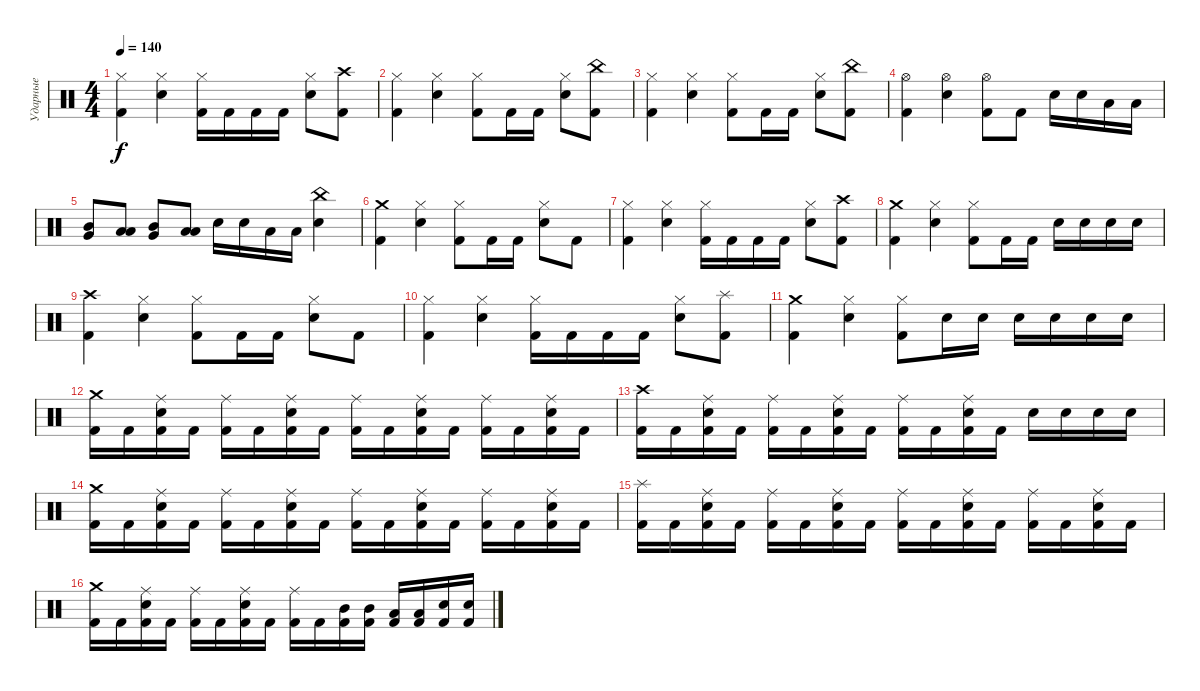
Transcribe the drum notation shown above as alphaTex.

\track ("Ударные" "Ударные") {instrument percussion}
\staff {score}
\articulation defaults
\ts (4 4)
\tempo 140
\clef neutral
\ks c
("Hi-Hat (closed)" "Kick (hit) 2").4{dy f} ("Hi-Hat (closed)" "Electric Snare (hit)").4 ("Hi-Hat (closed)" "Kick (hit) 2").16 "Kick (hit) 2".16 "Kick (hit) 2".16 "Kick (hit) 2".16 ("Hi-Hat (closed)" "Electric Snare (hit)").8 ("Crash high (hit)" "Kick (hit) 2").8 |
("Hi-Hat (closed)" "Kick (hit) 2").4 ("Hi-Hat (closed)" "Electric Snare (hit)").4 ("Hi-Hat (closed)" "Kick (hit) 2").8 "Kick (hit) 2".16 "Kick (hit) 2".16 ("Hi-Hat (closed)" "Electric Snare (hit)").8 ("China (hit)" "Kick (hit) 2").8 |
("Hi-Hat (closed)" "Kick (hit) 2").4 ("Hi-Hat (closed)" "Electric Snare (hit)").4 ("Hi-Hat (closed)" "Kick (hit) 2").8 "Kick (hit) 2".16 "Kick (hit) 2".16 ("Hi-Hat (closed)" "Electric Snare (hit)").8 ("China (hit)" "Kick (hit) 2").8 |
("Hi-Hat (open)" "Kick (hit) 2").4 ("Hi-Hat (open)" "Electric Snare (hit)").4 ("Hi-Hat (open)" "Kick (hit) 2").8 "Kick (hit) 2".8 "Electric Snare (hit)".16 "Electric Snare (hit)".16 "Low Tom (hit)".16 "Low Tom (hit)".16 |
("Mid Tom (hit)" "Very Low Tom (hit)").8 ("Low Tom (hit)" "Low Floor Tom (hit)").8 ("Mid Tom (hit)" "Very Low Tom (hit)").8 ("Low Tom (hit)" "Low Floor Tom (hit)").8 "Electric Snare (hit)".16 "Electric Snare (hit)".16 "Low Tom (hit)".16 "Low Tom (hit)".16 ("China (hit)" "Electric Snare (hit)").4 |
("Crash medium (hit)" "Kick (hit) 2").4 ("Hi-Hat (closed)" "Electric Snare (hit)").4 ("Hi-Hat (closed)" "Kick (hit) 2").8 "Kick (hit) 2".16 "Kick (hit) 2".16 ("Hi-Hat (closed)" "Electric Snare (hit)").8 "Kick (hit) 2".8 |
("Hi-Hat (closed)" "Kick (hit) 2").4 ("Hi-Hat (closed)" "Electric Snare (hit)").4 ("Hi-Hat (closed)" "Kick (hit) 2").16 "Kick (hit) 2".16 "Kick (hit) 2".16 "Kick (hit) 2".16 ("Hi-Hat (closed)" "Electric Snare (hit)").8 ("Crash high (hit)" "Kick (hit) 2").8 |
("Crash medium (hit)" "Kick (hit) 2").4 ("Hi-Hat (closed)" "Electric Snare (hit)").4 ("Hi-Hat (closed)" "Kick (hit) 2").8 "Kick (hit) 2".16 "Kick (hit) 2".16 "Electric Snare (hit)".16 "Electric Snare (hit)".16 "Electric Snare (hit)".16 "Electric Snare (hit)".16 |
("Crash high (hit)" "Kick (hit) 2").4 ("Hi-Hat (closed)" "Electric Snare (hit)").4 ("Hi-Hat (closed)" "Kick (hit) 2").8 "Kick (hit) 2".16 "Kick (hit) 2".16 ("Hi-Hat (closed)" "Electric Snare (hit)").8 "Kick (hit) 2".8 |
("Hi-Hat (closed)" "Kick (hit) 2").4 ("Hi-Hat (closed)" "Electric Snare (hit)").4 ("Hi-Hat (closed)" "Kick (hit) 2").16 "Kick (hit) 2".16 "Kick (hit) 2".16 "Kick (hit) 2".16 ("Hi-Hat (closed)" "Electric Snare (hit)").8 ("Splash (hit)" "Kick (hit) 2").8 |
("Crash medium (hit)" "Kick (hit) 2").4 ("Hi-Hat (closed)" "Electric Snare (hit)").4 ("Hi-Hat (closed)" "Kick (hit) 2").8 "Electric Snare (hit)".16 "Electric Snare (hit)".16 "Electric Snare (hit)".16 "Electric Snare (hit)".16 "Electric Snare (hit)".16 "Electric Snare (hit)".16 |
("Crash medium (hit)" "Kick (hit) 2").16 "Kick (hit) 2".16 ("Ride (middle)" "Electric Snare (hit)" "Kick (hit) 2").16 "Kick (hit) 2".16 ("Ride (middle)" "Kick (hit) 2").16 "Kick (hit) 2".16 ("Ride (middle)" "Electric Snare (hit)" "Kick (hit) 2").16 "Kick (hit) 2".16 ("Ride (middle)" "Kick (hit) 2").16 "Kick (hit) 2".16 ("Ride (middle)" "Electric Snare (hit)" "Kick (hit) 2").16 "Kick (hit) 2".16 ("Ride (middle)" "Kick (hit) 2").16 "Kick (hit) 2".16 ("Ride (middle)" "Electric Snare (hit)" "Kick (hit) 2").16 "Kick (hit) 2".16 |
("Crash high (hit)" "Kick (hit) 2").16 "Kick (hit) 2".16 ("Ride (middle)" "Electric Snare (hit)" "Kick (hit) 2").16 "Kick (hit) 2".16 ("Ride (middle)" "Kick (hit) 2").16 "Kick (hit) 2".16 ("Ride (middle)" "Electric Snare (hit)" "Kick (hit) 2").16 "Kick (hit) 2".16 ("Ride (middle)" "Kick (hit) 2").16 "Kick (hit) 2".16 ("Ride (middle)" "Electric Snare (hit)" "Kick (hit) 2").16 "Kick (hit) 2".16 "Electric Snare (hit)".16 "Electric Snare (hit)".16 "Electric Snare (hit)".16 "Electric Snare (hit)".16 |
("Crash medium (hit)" "Kick (hit) 2").16 "Kick (hit) 2".16 ("Ride (middle)" "Electric Snare (hit)" "Kick (hit) 2").16 "Kick (hit) 2".16 ("Ride (middle)" "Kick (hit) 2").16 "Kick (hit) 2".16 ("Ride (middle)" "Electric Snare (hit)" "Kick (hit) 2").16 "Kick (hit) 2".16 ("Ride (middle)" "Kick (hit) 2").16 "Kick (hit) 2".16 ("Ride (middle)" "Electric Snare (hit)" "Kick (hit) 2").16 "Kick (hit) 2".16 ("Ride (middle)" "Kick (hit) 2").16 "Kick (hit) 2".16 ("Ride (middle)" "Electric Snare (hit)" "Kick (hit) 2").16 "Kick (hit) 2".16 |
("Splash (hit)" "Kick (hit) 2").16 "Kick (hit) 2".16 ("Ride (middle)" "Electric Snare (hit)" "Kick (hit) 2").16 "Kick (hit) 2".16 ("Ride (middle)" "Kick (hit) 2").16 "Kick (hit) 2".16 ("Ride (middle)" "Electric Snare (hit)" "Kick (hit) 2").16 "Kick (hit) 2".16 ("Ride (middle)" "Kick (hit) 2").16 "Kick (hit) 2".16 ("Ride (middle)" "Electric Snare (hit)" "Kick (hit) 2").16 "Kick (hit) 2".16 ("Ride (middle)" "Kick (hit) 2").16 "Kick (hit) 2".16 ("Ride (middle)" "Electric Snare (hit)" "Kick (hit) 2").16 "Kick (hit) 2".16 |
("Crash medium (hit)" "Kick (hit) 2").16 "Kick (hit) 2".16 ("Ride (middle)" "Electric Snare (hit)" "Kick (hit) 2").16 "Kick (hit) 2".16 ("Ride (middle)" "Kick (hit) 2").16 "Kick (hit) 2".16 ("Ride (middle)" "Electric Snare (hit)" "Kick (hit) 2").16 "Kick (hit) 2".16 ("Ride (middle)" "Kick (hit) 2").16 "Kick (hit) 2".16 ("Mid Tom (hit)" "Kick (hit) 2").16 ("Mid Tom (hit)" "Kick (hit) 2").16 ("Low Tom (hit)" "Kick (hit) 2").16 ("Low Tom (hit)" "Kick (hit) 2").16 ("Electric Snare (hit)" "Kick (hit) 2").16 ("Electric Snare (hit)" "Kick (hit) 2").16
